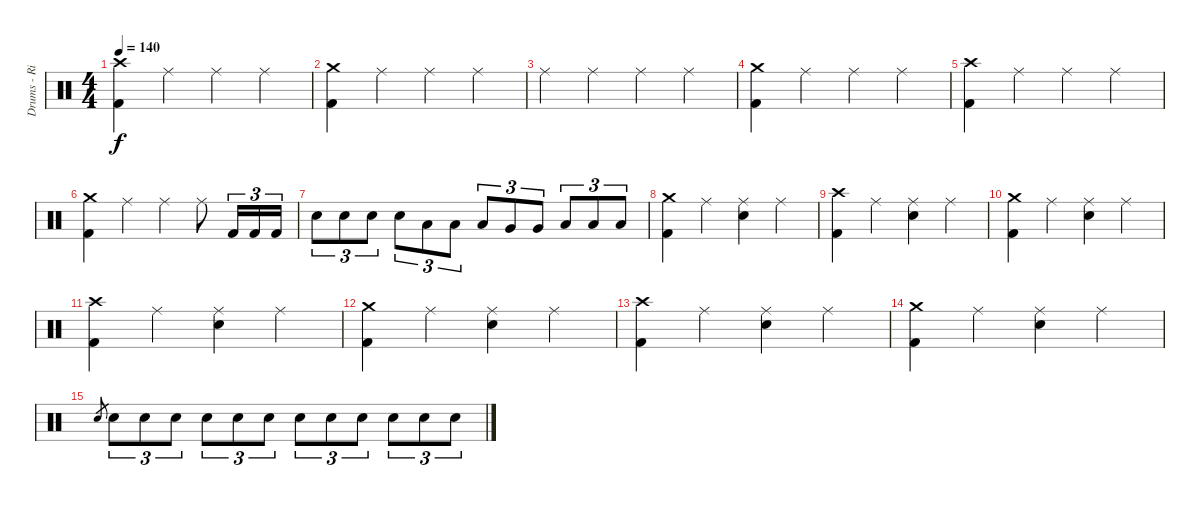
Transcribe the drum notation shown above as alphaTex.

\track ("Drums - Riley" "Drums - Ri") {instrument percussion}
\staff {score}
\articulation defaults
\ts (4 4)
\tempo 140
\clef neutral
\ks c
("Kick (hit) 2" "Crash high (hit)").4{dy f} "Ride (middle)".4 "Ride (middle)".4 "Ride (middle)".4 |
("Kick (hit) 2" "Crash medium (hit)").4 "Ride (middle)".4 "Ride (middle)".4 "Ride (middle)".4 |
"Ride (middle)".4 "Ride (middle)".4 "Ride (middle)".4 "Ride (middle)".4 |
("Kick (hit) 2" "Crash medium (hit)").4 "Ride (middle)".4 "Ride (middle)".4 "Ride (middle)".4 |
("Kick (hit) 2" "Crash high (hit)").4 "Ride (middle)".4 "Ride (middle)".4 "Ride (middle)".4 |
("Kick (hit) 2" "Crash medium (hit)").4 "Ride (middle)".4 "Ride (middle)".4 "Ride (middle)".8 "Kick (hit) 2".16{tu (3 2)} "Kick (hit) 2".16{tu (3 2)} "Kick (hit) 2".16{tu (3 2)} |
"Electric Snare (hit)".8{tu (3 2)} "Electric Snare (hit)".8{tu (3 2)} "Electric Snare (hit)".8{tu (3 2)} "Electric Snare (hit)".8{tu (3 2)} "Low Tom (hit)".8{tu (3 2)} "Low Tom (hit)".8{tu (3 2)} "Low Tom (hit)".8{tu (3 2)} "Very Low Tom (hit)".8{tu (3 2)} "Very Low Tom (hit)".8{tu (3 2)} "Low Floor Tom (hit)".8{tu (3 2)} "Low Floor Tom (hit)".8{tu (3 2)} "Low Floor Tom (hit)".8{tu (3 2)} |
("Kick (hit) 2" "Crash medium (hit)").4 "Ride (middle)".4 ("Electric Snare (hit)" "Ride (middle)").4 "Ride (middle)".4 |
("Kick (hit) 2" "Crash high (hit)").4 "Ride (middle)".4 ("Electric Snare (hit)" "Ride (middle)").4 "Ride (middle)".4 |
("Kick (hit) 2" "Crash medium (hit)").4 "Ride (middle)".4 ("Electric Snare (hit)" "Ride (middle)").4 "Ride (middle)".4 |
("Kick (hit) 2" "Crash high (hit)").4 "Ride (middle)".4 ("Electric Snare (hit)" "Ride (middle)").4 "Ride (middle)".4 |
("Kick (hit) 2" "Crash medium (hit)").4 "Ride (middle)".4 ("Electric Snare (hit)" "Ride (middle)").4 "Ride (middle)".4 |
("Kick (hit) 2" "Crash high (hit)").4 "Ride (middle)".4 ("Electric Snare (hit)" "Ride (middle)").4 "Ride (middle)".4 |
("Kick (hit) 2" "Crash medium (hit)").4 "Ride (middle)".4 ("Electric Snare (hit)" "Ride (middle)").4 "Ride (middle)".4 |
"Electric Snare (hit)".8{gr} "Electric Snare (hit)".8{tu (3 2)} "Electric Snare (hit)".8{tu (3 2)} "Electric Snare (hit)".8{tu (3 2)} "Electric Snare (hit)".8{tu (3 2)} "Electric Snare (hit)".8{tu (3 2)} "Electric Snare (hit)".8{tu (3 2)} "Electric Snare (hit)".8{tu (3 2)} "Electric Snare (hit)".8{tu (3 2)} "Electric Snare (hit)".8{tu (3 2)} "Electric Snare (hit)".8{tu (3 2)} "Electric Snare (hit)".8{tu (3 2)} "Electric Snare (hit)".8{tu (3 2)}
